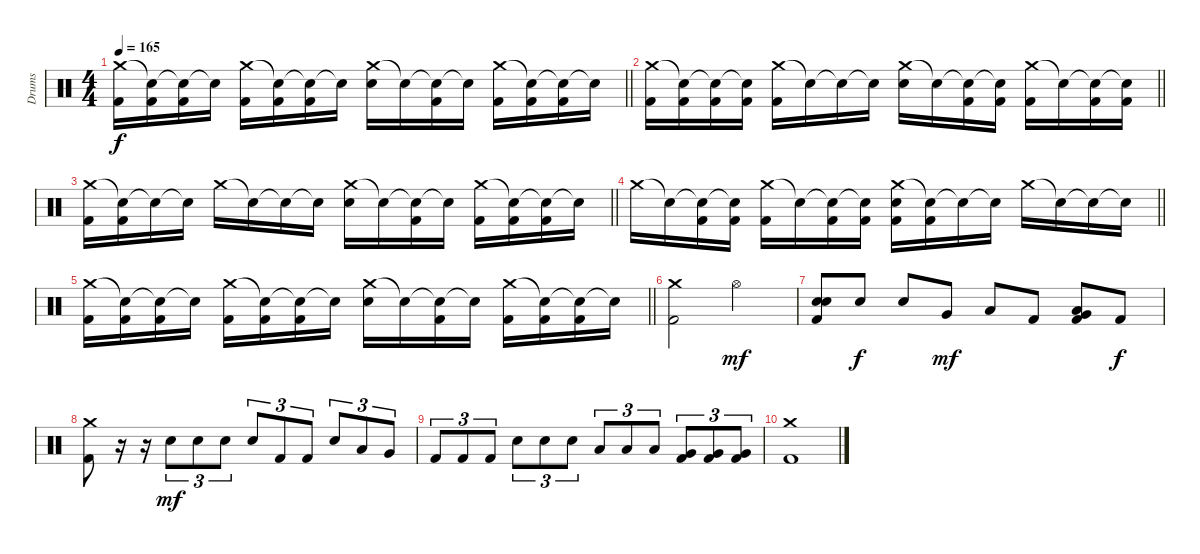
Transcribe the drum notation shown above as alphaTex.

\track ("Drums" "Drums") {instrument percussion}
\staff {score}
\articulation defaults
\ts (4 4)
\tempo 165
\clef neutral
\barLineRight lightlight
\ks c
("Crash medium (hit)" "Kick (hit) 2").16{dy f} ("Snare (hit)"{t} "Kick (hit) 2").16 ("Snare (hit)"{t} "Kick (hit) 2").16 "Snare (hit)"{t}.16 ("Crash medium (hit)" "Kick (hit) 2").16 ("Snare (hit)"{t} "Kick (hit) 2").16 ("Snare (hit)"{t} "Kick (hit) 2").16 "Snare (hit)"{t}.16 ("Crash medium (hit)" "Electric Snare (hit)").16 "Snare (hit)"{t}.16 ("Snare (hit)"{t} "Kick (hit) 2").16 "Snare (hit)"{t}.16 ("Crash medium (hit)" "Kick (hit) 2").16 ("Snare (hit)"{t} "Kick (hit) 2").16 ("Snare (hit)"{t} "Kick (hit) 2").16 "Snare (hit)"{t}.16 |
\barLineRight lightlight
("Crash medium (hit)" "Kick (hit) 2").16 ("Snare (hit)"{t} "Kick (hit) 2").16 ("Snare (hit)"{t} "Kick (hit) 2").16 ("Snare (hit)"{t} "Kick (hit) 2").16 ("Crash medium (hit)" "Kick (hit) 2").16 "Snare (hit)"{t}.16 "Snare (hit)"{t}.16 "Snare (hit)"{t}.16 ("Crash medium (hit)" "Electric Snare (hit)").16 "Snare (hit)"{t}.16 ("Snare (hit)"{t} "Kick (hit) 2").16 ("Snare (hit)"{t} "Kick (hit) 2").16 ("Crash medium (hit)" "Kick (hit) 2").16 "Snare (hit)"{t}.16 ("Snare (hit)"{t} "Kick (hit) 2").16 ("Snare (hit)"{t} "Kick (hit) 2").16 |
\barLineRight lightlight
("Crash medium (hit)" "Kick (hit) 2").16 ("Snare (hit)"{t} "Kick (hit) 2").16 "Snare (hit)"{t}.16 "Snare (hit)"{t}.16 "Crash medium (hit)".16 "Snare (hit)"{t}.16 "Snare (hit)"{t}.16 "Snare (hit)"{t}.16 ("Crash medium (hit)" "Electric Snare (hit)").16 "Snare (hit)"{t}.16 ("Snare (hit)"{t} "Kick (hit) 2").16 "Snare (hit)"{t}.16 ("Crash medium (hit)" "Kick (hit) 2").16 ("Snare (hit)"{t} "Kick (hit) 2").16 ("Snare (hit)"{t} "Kick (hit) 2").16 "Snare (hit)"{t}.16 |
\barLineRight lightlight "Crash medium (hit)".16 "Snare (hit)"{t}.16
("Snare (hit)"{t} "Kick (hit) 2").16 ("Snare (hit)"{t} "Kick (hit) 2").16 ("Crash medium (hit)" "Kick (hit) 2").16 "Snare (hit)"{t}.16 ("Snare (hit)"{t} "Kick (hit) 2").16 ("Snare (hit)"{t} "Kick (hit) 2").16 ("Crash medium (hit)" "Electric Snare (hit)" "Kick (hit) 2").16 ("Snare (hit)"{t} "Kick (hit) 2").16 "Snare (hit)"{t}.16 "Snare (hit)"{t}.16 "Crash medium (hit)".16 "Snare (hit)"{t}.16 "Snare (hit)"{t}.16 "Snare (hit)"{t}.16 |
\barLineRight lightlight
("Crash medium (hit)" "Kick (hit) 2").16 ("Snare (hit)"{t} "Kick (hit) 2").16 ("Snare (hit)"{t} "Kick (hit) 2").16 "Snare (hit)"{t}.16 ("Crash medium (hit)" "Kick (hit) 2").16 ("Snare (hit)"{t} "Kick (hit) 2").16 ("Snare (hit)"{t} "Kick (hit) 2").16 "Snare (hit)"{t}.16 ("Crash medium (hit)" "Electric Snare (hit)").16 "Snare (hit)"{t}.16 ("Snare (hit)"{t} "Kick (hit) 2").16 "Snare (hit)"{t}.16 ("Crash medium (hit)" "Kick (hit) 2").16 ("Snare (hit)"{t} "Kick (hit) 2").16 ("Snare (hit)"{t} "Kick (hit) 2").16 "Snare (hit)"{t}.16 |
("Crash medium (hit)" "Kick (hit) 2").2 "Hi-Hat (open)".2{dy mf} |
("Electric Snare (hit)" "Electric Snare (hit)" "Kick (hit) 2").8 "Electric Snare (hit)".8{dy f} "Electric Snare (hit)".8 "Very Low Tom (hit)".8{dy mf} "Low Tom (hit)".8 "Kick (hit) 2".8 ("Very Low Tom (hit)" "Low Tom (hit)" "Kick (hit) 2").8 "Kick (hit) 2".8{dy f} |
("Crash medium (hit)" "Kick (hit) 2").8 r.16 r.16 "Electric Snare (hit)".8{tu (3 2) dy mf} "Electric Snare (hit)".8{tu (3 2)} "Electric Snare (hit)".8{tu (3 2)} "Electric Snare (hit)".8{tu (3 2)} "Kick (hit) 2".8{tu (3 2)} "Kick (hit) 2".8{tu (3 2)} "Electric Snare (hit)".8{tu (3 2)} "Low Tom (hit)".8{tu (3 2)} "Very Low Tom (hit)".8{tu (3 2)} |
"Kick (hit) 2".8{tu (3 2)} "Kick (hit) 2".8{tu (3 2)} "Kick (hit) 2".8{tu (3 2)} "Electric Snare (hit)".8{tu (3 2)} "Electric Snare (hit)".8{tu (3 2)} "Electric Snare (hit)".8{tu (3 2)} "Low Tom (hit)".8{tu (3 2)} "Low Tom (hit)".8{tu (3 2)} "Low Tom (hit)".8{tu (3 2)} ("Very Low Tom (hit)" "Kick (hit) 2").8{tu (3 2)} ("Very Low Tom (hit)" "Kick (hit) 2").8{tu (3 2)} ("Very Low Tom (hit)" "Kick (hit) 2").8{tu (3 2)} |
("Crash medium (hit)" "Kick (hit) 2").1
